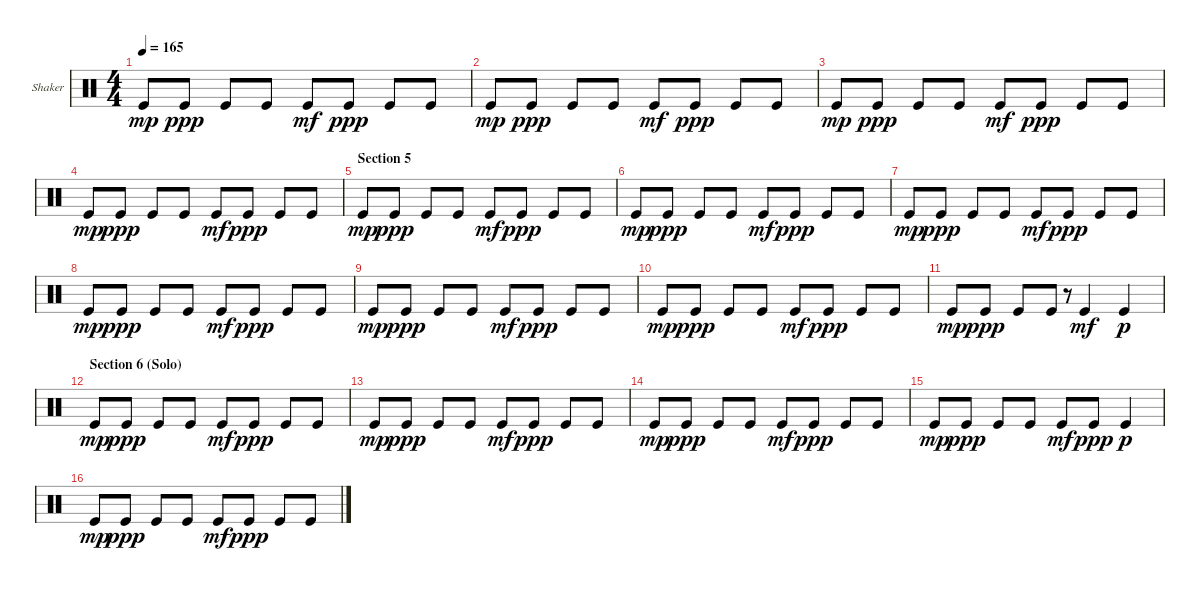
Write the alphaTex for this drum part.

\bracketExtendMode groupsimilarinstruments
\firstSystemTrackNameOrientation horizontal
\otherSystemsTrackNameOrientation horizontal
\track ("Shaker" "Shaker") {instrument percussion}
\staff {score}
\articulation defaults
\ts (4 4)
\tempo 165
\clef neutral
\ks c "Kick (hit)".8{dy mp} "Kick (hit)".8{dy ppp} "Kick (hit)".8 "Kick (hit)".8 "Kick (hit)".8{dy mf} "Kick (hit)".8{dy ppp} "Kick (hit)".8 "Kick (hit)".8
|
"Kick (hit)".8{dy mp} "Kick (hit)".8{dy ppp} "Kick (hit)".8 "Kick (hit)".8 "Kick (hit)".8{dy mf} "Kick (hit)".8{dy ppp} "Kick (hit)".8 "Kick (hit)".8 |
"Kick (hit)".8{dy mp} "Kick (hit)".8{dy ppp} "Kick (hit)".8 "Kick (hit)".8 "Kick (hit)".8{dy mf} "Kick (hit)".8{dy ppp} "Kick (hit)".8 "Kick (hit)".8 |
"Kick (hit)".8{dy mp} "Kick (hit)".8{dy ppp} "Kick (hit)".8 "Kick (hit)".8 "Kick (hit)".8{dy mf} "Kick (hit)".8{dy ppp} "Kick (hit)".8 "Kick (hit)".8 |
\section ("" "Section 5")
"Kick (hit)".8{dy mp} "Kick (hit)".8{dy ppp} "Kick (hit)".8 "Kick (hit)".8 "Kick (hit)".8{dy mf} "Kick (hit)".8{dy ppp} "Kick (hit)".8 "Kick (hit)".8 |
"Kick (hit)".8{dy mp} "Kick (hit)".8{dy ppp} "Kick (hit)".8 "Kick (hit)".8 "Kick (hit)".8{dy mf} "Kick (hit)".8{dy ppp} "Kick (hit)".8 "Kick (hit)".8 |
"Kick (hit)".8{dy mp} "Kick (hit)".8{dy ppp} "Kick (hit)".8 "Kick (hit)".8 "Kick (hit)".8{dy mf} "Kick (hit)".8{dy ppp} "Kick (hit)".8 "Kick (hit)".8 |
"Kick (hit)".8{dy mp} "Kick (hit)".8{dy ppp} "Kick (hit)".8 "Kick (hit)".8 "Kick (hit)".8{dy mf} "Kick (hit)".8{dy ppp} "Kick (hit)".8 "Kick (hit)".8 |
"Kick (hit)".8{dy mp} "Kick (hit)".8{dy ppp} "Kick (hit)".8 "Kick (hit)".8 "Kick (hit)".8{dy mf} "Kick (hit)".8{dy ppp} "Kick (hit)".8 "Kick (hit)".8 |
"Kick (hit)".8{dy mp} "Kick (hit)".8{dy ppp} "Kick (hit)".8 "Kick (hit)".8 "Kick (hit)".8{dy mf} "Kick (hit)".8{dy ppp} "Kick (hit)".8 "Kick (hit)".8 |
"Kick (hit)".8{dy mp} "Kick (hit)".8{dy ppp} "Kick (hit)".8 "Kick (hit)".8 r.8{gr} "Kick (hit)".4{dy mf} "Kick (hit)".4{dy p} |
\section ("" "Section 6 (Solo)")
"Kick (hit)".8{dy mp} "Kick (hit)".8{dy ppp} "Kick (hit)".8 "Kick (hit)".8 "Kick (hit)".8{dy mf} "Kick (hit)".8{dy ppp} "Kick (hit)".8 "Kick (hit)".8 |
"Kick (hit)".8{dy mp} "Kick (hit)".8{dy ppp} "Kick (hit)".8 "Kick (hit)".8 "Kick (hit)".8{dy mf} "Kick (hit)".8{dy ppp} "Kick (hit)".8 "Kick (hit)".8 |
"Kick (hit)".8{dy mp} "Kick (hit)".8{dy ppp} "Kick (hit)".8 "Kick (hit)".8 "Kick (hit)".8{dy mf} "Kick (hit)".8{dy ppp} "Kick (hit)".8 "Kick (hit)".8 |
"Kick (hit)".8{dy mp} "Kick (hit)".8{dy ppp} "Kick (hit)".8 "Kick (hit)".8 "Kick (hit)".8{dy mf} "Kick (hit)".8{dy ppp} "Kick (hit)".4{dy p} |
"Kick (hit)".8{dy mp} "Kick (hit)".8{dy ppp} "Kick (hit)".8 "Kick (hit)".8 "Kick (hit)".8{dy mf} "Kick (hit)".8{dy ppp} "Kick (hit)".8 "Kick (hit)".8
